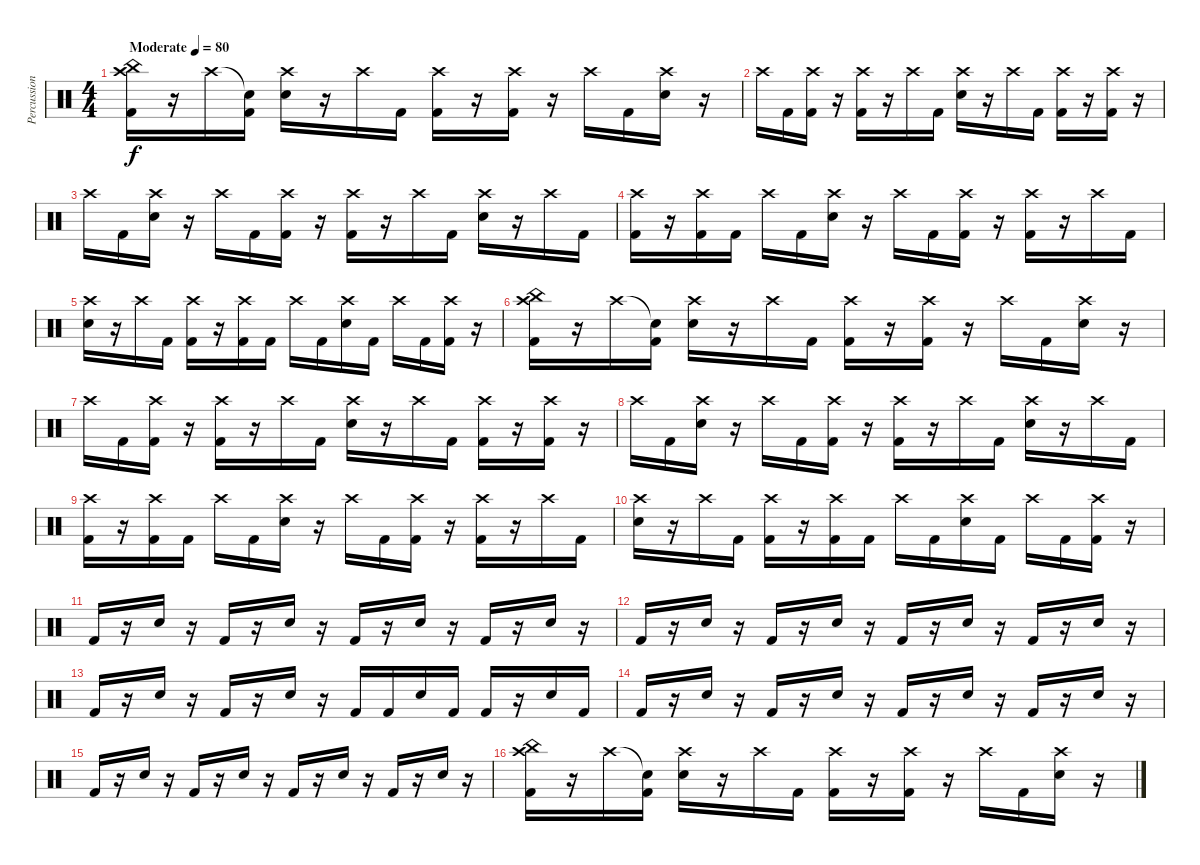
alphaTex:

\track ("Percussion" "Percussion") {instrument percussion}
\staff {score}
\articulation defaults
\ts (4 4)
\tempo (80 "Moderate")
\clef neutral
\ks c
("China (hit)" "Crash high (hit)" "Kick (hit) 2").16{dy f} r.16 "Crash high (hit)".16 ("Snare (hit)"{t} "Kick (hit) 2").16 ("Crash high (hit)" "Electric Snare (hit)").16 r.16 "Crash high (hit)".16 "Kick (hit) 2".16 ("Crash high (hit)" "Kick (hit) 2").16 r.16 ("Crash high (hit)" "Kick (hit) 2").16 r.16 "Crash high (hit)".16 "Kick (hit) 2".16 ("Crash high (hit)" "Electric Snare (hit)").16 r.16 |
"Crash high (hit)".16 "Kick (hit) 2".16 ("Crash high (hit)" "Kick (hit) 2").16 r.16 ("Crash high (hit)" "Kick (hit) 2").16 r.16 "Crash high (hit)".16 "Kick (hit) 2".16 ("Crash high (hit)" "Electric Snare (hit)").16 r.16 "Crash high (hit)".16 "Kick (hit) 2".16 ("Crash high (hit)" "Kick (hit) 2").16 r.16 ("Crash high (hit)" "Kick (hit) 2").16 r.16 |
"Crash high (hit)".16 "Kick (hit) 2".16 ("Crash high (hit)" "Electric Snare (hit)").16 r.16 "Crash high (hit)".16 "Kick (hit) 2".16 ("Crash high (hit)" "Kick (hit) 2").16 r.16 ("Crash high (hit)" "Kick (hit) 2").16 r.16 "Crash high (hit)".16 "Kick (hit) 2".16 ("Crash high (hit)" "Electric Snare (hit)").16 r.16 "Crash high (hit)".16 "Kick (hit) 2".16 |
("Crash high (hit)" "Kick (hit) 2").16 r.16 ("Crash high (hit)" "Kick (hit) 2").16 "Kick (hit) 2".16 "Crash high (hit)".16 "Kick (hit) 2".16 ("Crash high (hit)" "Electric Snare (hit)").16 r.16 "Crash high (hit)".16 "Kick (hit) 2".16 ("Crash high (hit)" "Kick (hit) 2").16 r.16 ("Crash high (hit)" "Kick (hit) 2").16 r.16 "Crash high (hit)".16 "Kick (hit) 2".16 |
("Crash high (hit)" "Electric Snare (hit)").16 r.16 "Crash high (hit)".16 "Kick (hit) 2".16 ("Crash high (hit)" "Kick (hit) 2").16 r.16 ("Crash high (hit)" "Kick (hit) 2").16 "Kick (hit) 2".16 "Crash high (hit)".16 "Kick (hit) 2".16 ("Crash high (hit)" "Electric Snare (hit)").16 "Kick (hit) 2".16 "Crash high (hit)".16 "Kick (hit) 2".16 ("Crash high (hit)" "Kick (hit) 2").16 r.16 |
("China (hit)" "Crash high (hit)" "Kick (hit) 2").16 r.16 "Crash high (hit)".16 ("Snare (hit)"{t} "Kick (hit) 2").16 ("Crash high (hit)" "Electric Snare (hit)").16 r.16 "Crash high (hit)".16 "Kick (hit) 2".16 ("Crash high (hit)" "Kick (hit) 2").16 r.16 ("Crash high (hit)" "Kick (hit) 2").16 r.16 "Crash high (hit)".16 "Kick (hit) 2".16 ("Crash high (hit)" "Electric Snare (hit)").16 r.16 |
"Crash high (hit)".16 "Kick (hit) 2".16 ("Crash high (hit)" "Kick (hit) 2").16 r.16 ("Crash high (hit)" "Kick (hit) 2").16 r.16 "Crash high (hit)".16 "Kick (hit) 2".16 ("Crash high (hit)" "Electric Snare (hit)").16 r.16 "Crash high (hit)".16 "Kick (hit) 2".16 ("Crash high (hit)" "Kick (hit) 2").16 r.16 ("Crash high (hit)" "Kick (hit) 2").16 r.16 |
"Crash high (hit)".16 "Kick (hit) 2".16 ("Crash high (hit)" "Electric Snare (hit)").16 r.16 "Crash high (hit)".16 "Kick (hit) 2".16 ("Crash high (hit)" "Kick (hit) 2").16 r.16 ("Crash high (hit)" "Kick (hit) 2").16 r.16 "Crash high (hit)".16 "Kick (hit) 2".16 ("Crash high (hit)" "Electric Snare (hit)").16 r.16 "Crash high (hit)".16 "Kick (hit) 2".16 |
("Crash high (hit)" "Kick (hit) 2").16 r.16 ("Crash high (hit)" "Kick (hit) 2").16 "Kick (hit) 2".16 "Crash high (hit)".16 "Kick (hit) 2".16 ("Crash high (hit)" "Electric Snare (hit)").16 r.16 "Crash high (hit)".16 "Kick (hit) 2".16 ("Crash high (hit)" "Kick (hit) 2").16 r.16 ("Crash high (hit)" "Kick (hit) 2").16 r.16 "Crash high (hit)".16 "Kick (hit) 2".16 |
("Crash high (hit)" "Electric Snare (hit)").16 r.16 "Crash high (hit)".16 "Kick (hit) 2".16 ("Crash high (hit)" "Kick (hit) 2").16 r.16 ("Crash high (hit)" "Kick (hit) 2").16 "Kick (hit) 2".16 "Crash high (hit)".16 "Kick (hit) 2".16 ("Crash high (hit)" "Electric Snare (hit)").16 "Kick (hit) 2".16 "Crash high (hit)".16 "Kick (hit) 2".16 ("Crash high (hit)" "Kick (hit) 2").16 r.16 |
"Kick (hit) 2".16 r.16 "Electric Snare (hit)".16 r.16 "Kick (hit) 2".16 r.16 "Electric Snare (hit)".16 r.16 "Kick (hit) 2".16 r.16 "Electric Snare (hit)".16 r.16 "Kick (hit) 2".16 r.16 "Electric Snare (hit)".16 r.16 |
"Kick (hit) 2".16 r.16 "Electric Snare (hit)".16 r.16 "Kick (hit) 2".16 r.16 "Electric Snare (hit)".16 r.16 "Kick (hit) 2".16 r.16 "Electric Snare (hit)".16 r.16 "Kick (hit) 2".16 r.16 "Electric Snare (hit)".16 r.16 |
"Kick (hit) 2".16 r.16 "Electric Snare (hit)".16 r.16 "Kick (hit) 2".16 r.16 "Electric Snare (hit)".16 r.16 "Kick (hit) 2".16 "Kick (hit) 2".16 "Electric Snare (hit)".16 "Kick (hit) 2".16 "Kick (hit) 2".16 r.16 "Electric Snare (hit)".16 "Kick (hit) 2".16 |
"Kick (hit) 2".16 r.16 "Electric Snare (hit)".16 r.16 "Kick (hit) 2".16 r.16 "Electric Snare (hit)".16 r.16 "Kick (hit) 2".16 r.16 "Electric Snare (hit)".16 r.16 "Kick (hit) 2".16 r.16 "Electric Snare (hit)".16 r.16 |
"Kick (hit) 2".16 r.16 "Electric Snare (hit)".16 r.16 "Kick (hit) 2".16 r.16 "Electric Snare (hit)".16 r.16 "Kick (hit) 2".16 r.16 "Electric Snare (hit)".16 r.16 "Kick (hit) 2".16 r.16 "Electric Snare (hit)".16 r.16 |
("China (hit)" "Crash high (hit)" "Kick (hit) 2").16 r.16 "Crash high (hit)".16 ("Snare (hit)"{t} "Kick (hit) 2").16 ("Crash high (hit)" "Electric Snare (hit)").16 r.16 "Crash high (hit)".16 "Kick (hit) 2".16 ("Crash high (hit)" "Kick (hit) 2").16 r.16 ("Crash high (hit)" "Kick (hit) 2").16 r.16 "Crash high (hit)".16 "Kick (hit) 2".16 ("Crash high (hit)" "Electric Snare (hit)").16 r.16
